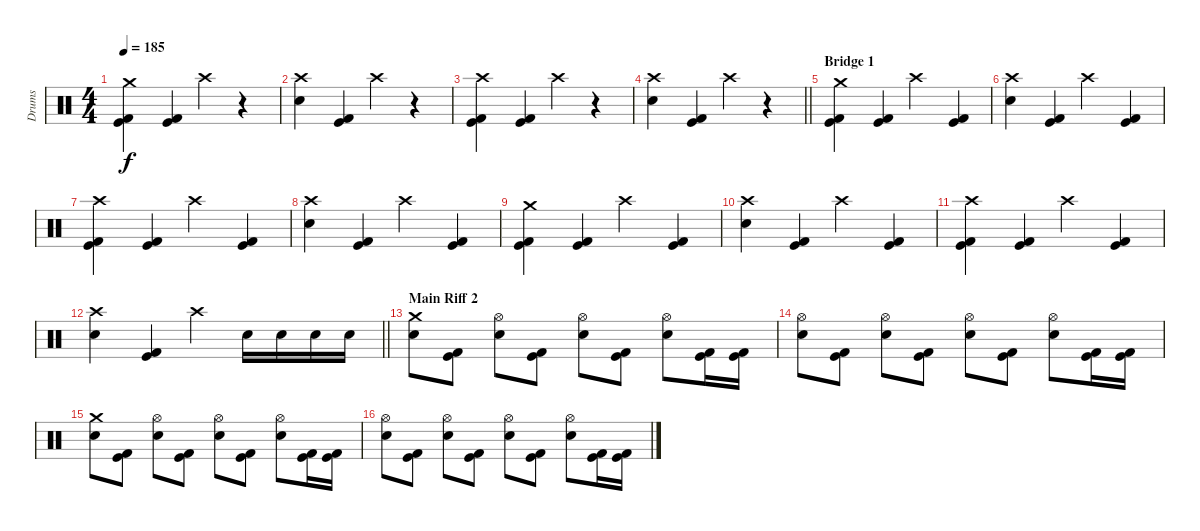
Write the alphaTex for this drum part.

\track ("Drums" "Drums") {instrument percussion}
\staff {score}
\articulation defaults
\ts (4 4)
\tempo 185
\clef neutral
\ks c
("Crash medium (hit)" "Kick (hit) 2" "Kick (hit)").4{dy f} ("Kick (hit) 2" "Kick (hit)").4 "Crash high (hit)".4 r.4 |
("Crash high (hit)" "Electric Snare (hit)").4 ("Kick (hit) 2" "Kick (hit)").4 "Crash high (hit)".4 r.4 |
("Crash high (hit)" "Kick (hit) 2" "Kick (hit)").4 ("Kick (hit) 2" "Kick (hit)").4 "Crash high (hit)".4 r.4 |
\barLineRight lightlight
("Crash high (hit)" "Electric Snare (hit)").4 ("Kick (hit) 2" "Kick (hit)").4 "Crash high (hit)".4 r.4 |
\section ("" "Bridge 1")
("Crash medium (hit)" "Kick (hit) 2" "Kick (hit)").4 ("Kick (hit) 2" "Kick (hit)").4 "Crash high (hit)".4 ("Kick (hit) 2" "Kick (hit)").4 |
("Crash high (hit)" "Electric Snare (hit)").4 ("Kick (hit) 2" "Kick (hit)").4 "Crash high (hit)".4 ("Kick (hit) 2" "Kick (hit)").4 |
("Crash high (hit)" "Kick (hit) 2" "Kick (hit)").4 ("Kick (hit) 2" "Kick (hit)").4 "Crash high (hit)".4 ("Kick (hit) 2" "Kick (hit)").4 |
("Crash high (hit)" "Electric Snare (hit)").4 ("Kick (hit) 2" "Kick (hit)").4 "Crash high (hit)".4 ("Kick (hit) 2" "Kick (hit)").4 |
("Crash medium (hit)" "Kick (hit) 2" "Kick (hit)").4 ("Kick (hit) 2" "Kick (hit)").4 "Crash high (hit)".4 ("Kick (hit) 2" "Kick (hit)").4 |
("Crash high (hit)" "Electric Snare (hit)").4 ("Kick (hit) 2" "Kick (hit)").4 "Crash high (hit)".4 ("Kick (hit) 2" "Kick (hit)").4 |
("Crash high (hit)" "Kick (hit) 2" "Kick (hit)").4 ("Kick (hit) 2" "Kick (hit)").4 "Crash high (hit)".4 ("Kick (hit) 2" "Kick (hit)").4 |
\barLineRight lightlight
("Crash high (hit)" "Electric Snare (hit)").4 ("Kick (hit) 2" "Kick (hit)").4 "Crash high (hit)".4 "Electric Snare (hit)".16 "Electric Snare (hit)".16 "Electric Snare (hit)".16 "Electric Snare (hit)".16 |
\section ("" "Main Riff 2")
("Crash medium (hit)" "Electric Snare (hit)").8 ("Kick (hit) 2" "Kick (hit)").8 ("Hi-Hat (open)" "Electric Snare (hit)").8 ("Kick (hit) 2" "Kick (hit)").8 ("Hi-Hat (open)" "Electric Snare (hit)").8 ("Kick (hit) 2" "Kick (hit)").8 ("Hi-Hat (open)" "Electric Snare (hit)").8 ("Kick (hit) 2" "Kick (hit)").16 ("Kick (hit) 2" "Kick (hit)").16 |
("Hi-Hat (open)" "Electric Snare (hit)").8 ("Kick (hit) 2" "Kick (hit)").8 ("Hi-Hat (open)" "Electric Snare (hit)").8 ("Kick (hit) 2" "Kick (hit)").8 ("Hi-Hat (open)" "Electric Snare (hit)").8 ("Kick (hit) 2" "Kick (hit)").8 ("Hi-Hat (open)" "Electric Snare (hit)").8 ("Kick (hit) 2" "Kick (hit)").16 ("Kick (hit) 2" "Kick (hit)").16 |
("Crash medium (hit)" "Electric Snare (hit)").8 ("Kick (hit) 2" "Kick (hit)").8 ("Hi-Hat (open)" "Electric Snare (hit)").8 ("Kick (hit) 2" "Kick (hit)").8 ("Hi-Hat (open)" "Electric Snare (hit)").8 ("Kick (hit) 2" "Kick (hit)").8 ("Hi-Hat (open)" "Electric Snare (hit)").8 ("Kick (hit) 2" "Kick (hit)").16 ("Kick (hit) 2" "Kick (hit)").16 |
("Hi-Hat (open)" "Electric Snare (hit)").8 ("Kick (hit) 2" "Kick (hit)").8 ("Hi-Hat (open)" "Electric Snare (hit)").8 ("Kick (hit) 2" "Kick (hit)").8 ("Hi-Hat (open)" "Electric Snare (hit)").8 ("Kick (hit) 2" "Kick (hit)").8 ("Hi-Hat (open)" "Electric Snare (hit)").8 ("Kick (hit) 2" "Kick (hit)").16 ("Kick (hit) 2" "Kick (hit)").16
